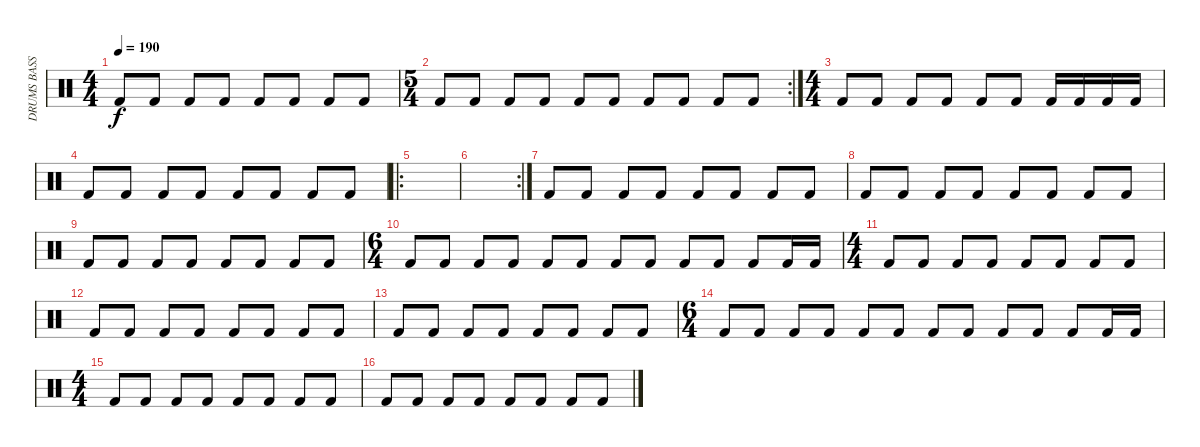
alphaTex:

\track ("DRUMS BASS" "DRUMS BASS") {instrument percussion}
\staff {score}
\articulation defaults
\ts (4 4)
\tempo 190
\clef neutral
\ks c "Kick (hit) 2".8{dy f} "Kick (hit) 2".8 "Kick (hit) 2".8 "Kick (hit) 2".8 "Kick (hit) 2".8 "Kick (hit) 2".8 "Kick (hit) 2".8 "Kick (hit) 2".8
|
\rc 2
\ts (5 4)
"Kick (hit) 2".8 "Kick (hit) 2".8 "Kick (hit) 2".8 "Kick (hit) 2".8 "Kick (hit) 2".8 "Kick (hit) 2".8 "Kick (hit) 2".8 "Kick (hit) 2".8 "Kick (hit) 2".8 "Kick (hit) 2".8 |
\ts (4 4)
"Kick (hit) 2".8 "Kick (hit) 2".8 "Kick (hit) 2".8 "Kick (hit) 2".8 "Kick (hit) 2".8 "Kick (hit) 2".8 "Kick (hit) 2".16 "Kick (hit) 2".16 "Kick (hit) 2".16 "Kick (hit) 2".16 |
"Kick (hit) 2".8 "Kick (hit) 2".8 "Kick (hit) 2".8 "Kick (hit) 2".8 "Kick (hit) 2".8 "Kick (hit) 2".8 "Kick (hit) 2".8 "Kick (hit) 2".8 |
\ro
|
\rc 2
|
"Kick (hit) 2".8 "Kick (hit) 2".8 "Kick (hit) 2".8 "Kick (hit) 2".8 "Kick (hit) 2".8 "Kick (hit) 2".8 "Kick (hit) 2".8 "Kick (hit) 2".8 |
"Kick (hit) 2".8 "Kick (hit) 2".8 "Kick (hit) 2".8 "Kick (hit) 2".8 "Kick (hit) 2".8 "Kick (hit) 2".8 "Kick (hit) 2".8 "Kick (hit) 2".8 |
"Kick (hit) 2".8 "Kick (hit) 2".8 "Kick (hit) 2".8 "Kick (hit) 2".8 "Kick (hit) 2".8 "Kick (hit) 2".8 "Kick (hit) 2".8 "Kick (hit) 2".8 |
\ts (6 4)
"Kick (hit) 2".8 "Kick (hit) 2".8 "Kick (hit) 2".8 "Kick (hit) 2".8 "Kick (hit) 2".8 "Kick (hit) 2".8 "Kick (hit) 2".8 "Kick (hit) 2".8 "Kick (hit) 2".8 "Kick (hit) 2".8 "Kick (hit) 2".8 "Kick (hit) 2".16 "Kick (hit) 2".16 |
\ts (4 4)
"Kick (hit) 2".8 "Kick (hit) 2".8 "Kick (hit) 2".8 "Kick (hit) 2".8 "Kick (hit) 2".8 "Kick (hit) 2".8 "Kick (hit) 2".8 "Kick (hit) 2".8 |
"Kick (hit) 2".8 "Kick (hit) 2".8 "Kick (hit) 2".8 "Kick (hit) 2".8 "Kick (hit) 2".8 "Kick (hit) 2".8 "Kick (hit) 2".8 "Kick (hit) 2".8 |
"Kick (hit) 2".8 "Kick (hit) 2".8 "Kick (hit) 2".8 "Kick (hit) 2".8 "Kick (hit) 2".8 "Kick (hit) 2".8 "Kick (hit) 2".8 "Kick (hit) 2".8 |
\ts (6 4)
"Kick (hit) 2".8 "Kick (hit) 2".8 "Kick (hit) 2".8 "Kick (hit) 2".8 "Kick (hit) 2".8 "Kick (hit) 2".8 "Kick (hit) 2".8 "Kick (hit) 2".8 "Kick (hit) 2".8 "Kick (hit) 2".8 "Kick (hit) 2".8 "Kick (hit) 2".16 "Kick (hit) 2".16 |
\ts (4 4)
"Kick (hit) 2".8 "Kick (hit) 2".8 "Kick (hit) 2".8 "Kick (hit) 2".8 "Kick (hit) 2".8 "Kick (hit) 2".8 "Kick (hit) 2".8 "Kick (hit) 2".8 |
"Kick (hit) 2".8 "Kick (hit) 2".8 "Kick (hit) 2".8 "Kick (hit) 2".8 "Kick (hit) 2".8 "Kick (hit) 2".8 "Kick (hit) 2".8 "Kick (hit) 2".8
